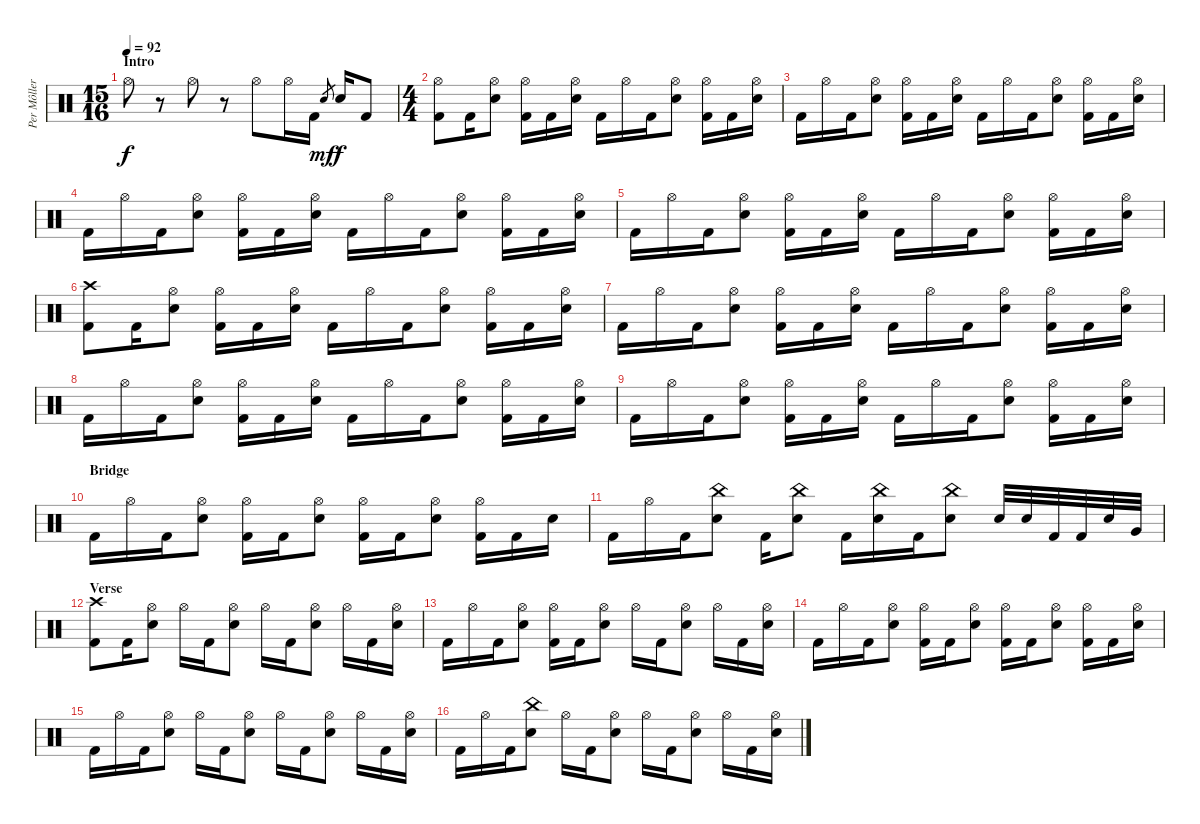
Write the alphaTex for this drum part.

\track ("Per Môller Jensen" "Per Môller") {instrument percussion}
\staff {score}
\articulation defaults
\ts (15 16)
\section ("" "Intro")
\tempo 92
\clef neutral
\ks c "Hi-Hat (open)".8{dy f}
r.8 "Hi-Hat (open)".8 r.8 "Hi-Hat (open)".8 "Hi-Hat (open)".16 "Kick (hit) 2".16 "Electric Snare (hit)".8{gr dy mf} "Electric Snare (hit)".16{dy f} "Kick (hit) 2".8 |
\ts (4 4)
("Kick (hit) 2" "Hi-Hat (open)").8 "Kick (hit) 2".16 ("Electric Snare (hit)" "Hi-Hat (open)").8 ("Kick (hit) 2" "Hi-Hat (open)").16 "Kick (hit) 2".16 ("Electric Snare (hit)" "Hi-Hat (open)").16 "Kick (hit) 2".16 "Hi-Hat (open)".16 "Kick (hit) 2".16 ("Electric Snare (hit)" "Hi-Hat (open)").8 ("Kick (hit) 2" "Hi-Hat (open)").16 "Kick (hit) 2".16 ("Electric Snare (hit)" "Hi-Hat (open)").16 |
"Kick (hit) 2".16 "Hi-Hat (open)".16 "Kick (hit) 2".16 ("Electric Snare (hit)" "Hi-Hat (open)").8 ("Kick (hit) 2" "Hi-Hat (open)").16 "Kick (hit) 2".16 ("Electric Snare (hit)" "Hi-Hat (open)").16 "Kick (hit) 2".16 "Hi-Hat (open)".16 "Kick (hit) 2".16 ("Electric Snare (hit)" "Hi-Hat (open)").8 ("Kick (hit) 2" "Hi-Hat (open)").16 "Kick (hit) 2".16 ("Electric Snare (hit)" "Hi-Hat (open)").16 |
"Kick (hit) 2".16 "Hi-Hat (open)".16 "Kick (hit) 2".16 ("Electric Snare (hit)" "Hi-Hat (open)").8 ("Kick (hit) 2" "Hi-Hat (open)").16 "Kick (hit) 2".16 ("Electric Snare (hit)" "Hi-Hat (open)").16 "Kick (hit) 2".16 "Hi-Hat (open)".16 "Kick (hit) 2".16 ("Electric Snare (hit)" "Hi-Hat (open)").8 ("Kick (hit) 2" "Hi-Hat (open)").16 "Kick (hit) 2".16 ("Electric Snare (hit)" "Hi-Hat (open)").16 |
"Kick (hit) 2".16 "Hi-Hat (open)".16 "Kick (hit) 2".16 ("Electric Snare (hit)" "Hi-Hat (open)").8 ("Kick (hit) 2" "Hi-Hat (open)").16 "Kick (hit) 2".16 ("Electric Snare (hit)" "Hi-Hat (open)").16 "Kick (hit) 2".16 "Hi-Hat (open)".16 "Kick (hit) 2".16 ("Electric Snare (hit)" "Hi-Hat (open)").8 ("Kick (hit) 2" "Hi-Hat (open)").16 "Kick (hit) 2".16 ("Electric Snare (hit)" "Hi-Hat (open)").16 |
("Kick (hit) 2" "Crash high (hit)").8 "Kick (hit) 2".16 ("Electric Snare (hit)" "Hi-Hat (open)").8 ("Kick (hit) 2" "Hi-Hat (open)").16 "Kick (hit) 2".16 ("Electric Snare (hit)" "Hi-Hat (open)").16 "Kick (hit) 2".16 "Hi-Hat (open)".16 "Kick (hit) 2".16 ("Electric Snare (hit)" "Hi-Hat (open)").8 ("Kick (hit) 2" "Hi-Hat (open)").16 "Kick (hit) 2".16 ("Electric Snare (hit)" "Hi-Hat (open)").16 |
"Kick (hit) 2".16 "Hi-Hat (open)".16 "Kick (hit) 2".16 ("Electric Snare (hit)" "Hi-Hat (open)").8 ("Kick (hit) 2" "Hi-Hat (open)").16 "Kick (hit) 2".16 ("Electric Snare (hit)" "Hi-Hat (open)").16 "Kick (hit) 2".16 "Hi-Hat (open)".16 "Kick (hit) 2".16 ("Electric Snare (hit)" "Hi-Hat (open)").8 ("Kick (hit) 2" "Hi-Hat (open)").16 "Kick (hit) 2".16 ("Electric Snare (hit)" "Hi-Hat (open)").16 |
"Kick (hit) 2".16 "Hi-Hat (open)".16 "Kick (hit) 2".16 ("Electric Snare (hit)" "Hi-Hat (open)").8 ("Kick (hit) 2" "Hi-Hat (open)").16 "Kick (hit) 2".16 ("Electric Snare (hit)" "Hi-Hat (open)").16 "Kick (hit) 2".16 "Hi-Hat (open)".16 "Kick (hit) 2".16 ("Electric Snare (hit)" "Hi-Hat (open)").8 ("Kick (hit) 2" "Hi-Hat (open)").16 "Kick (hit) 2".16 ("Electric Snare (hit)" "Hi-Hat (open)").16 |
"Kick (hit) 2".16 "Hi-Hat (open)".16 "Kick (hit) 2".16 ("Electric Snare (hit)" "Hi-Hat (open)").8 ("Kick (hit) 2" "Hi-Hat (open)").16 "Kick (hit) 2".16 ("Electric Snare (hit)" "Hi-Hat (open)").16 "Kick (hit) 2".16 "Hi-Hat (open)".16 "Kick (hit) 2".16 ("Electric Snare (hit)" "Hi-Hat (open)").8 ("Kick (hit) 2" "Hi-Hat (open)").16 "Kick (hit) 2".16 ("Electric Snare (hit)" "Hi-Hat (open)").16 |
\section ("" "Bridge")
"Kick (hit) 2".16 "Hi-Hat (open)".16 "Kick (hit) 2".16 ("Electric Snare (hit)" "Hi-Hat (open)").8 ("Kick (hit) 2" "Hi-Hat (open)").16 "Kick (hit) 2".16 ("Electric Snare (hit)" "Hi-Hat (open)").8 ("Kick (hit) 2" "Hi-Hat (open)").16 "Kick (hit) 2".16 ("Electric Snare (hit)" "Hi-Hat (open)").8 ("Kick (hit) 2" "Hi-Hat (open)").16 "Kick (hit) 2".16 "Electric Snare (hit)".16 |
"Kick (hit) 2".16 "Hi-Hat (open)".16 "Kick (hit) 2".16 ("Electric Snare (hit)" "China (hit)").8 "Kick (hit) 2".16 ("Electric Snare (hit)" "China (hit)").8 "Kick (hit) 2".16 ("Electric Snare (hit)" "China (hit)").16 "Kick (hit) 2".16 ("Electric Snare (hit)" "China (hit)").8 "Electric Snare (hit)".32 "Electric Snare (hit)".32 "Kick (hit) 2".32 "Kick (hit) 2".32 "Electric Snare (hit)".32 "Very Low Tom (hit)".32 |
\section ("" "Verse")
("Kick (hit) 2" "Crash high (hit)").8 "Kick (hit) 2".16 ("Electric Snare (hit)" "Hi-Hat (open)").8 "Hi-Hat (open)".16 "Kick (hit) 2".16 ("Electric Snare (hit)" "Hi-Hat (open)").8 "Hi-Hat (open)".16 "Kick (hit) 2".16 ("Electric Snare (hit)" "Hi-Hat (open)").8 "Hi-Hat (open)".16 "Kick (hit) 2".16 ("Electric Snare (hit)" "Hi-Hat (open)").16 |
"Kick (hit) 2".16 "Hi-Hat (open)".16 "Kick (hit) 2".16 ("Electric Snare (hit)" "Hi-Hat (open)").8 ("Kick (hit) 2" "Hi-Hat (open)").16 "Kick (hit) 2".16 ("Electric Snare (hit)" "Hi-Hat (open)").8 "Hi-Hat (open)".16 "Kick (hit) 2".16 ("Electric Snare (hit)" "Hi-Hat (open)").8 "Hi-Hat (open)".16 "Kick (hit) 2".16 ("Electric Snare (hit)" "Hi-Hat (open)").16 |
"Kick (hit) 2".16 "Hi-Hat (open)".16 "Kick (hit) 2".16 ("Electric Snare (hit)" "Hi-Hat (open)").8 ("Kick (hit) 2" "Hi-Hat (open)").16 "Kick (hit) 2".16 ("Electric Snare (hit)" "Hi-Hat (open)").8 ("Kick (hit) 2" "Hi-Hat (open)").16 "Kick (hit) 2".16 ("Electric Snare (hit)" "Hi-Hat (open)").8 ("Kick (hit) 2" "Hi-Hat (open)").16 "Kick (hit) 2".16 ("Electric Snare (hit)" "Hi-Hat (open)").16 |
"Kick (hit) 2".16 "Hi-Hat (open)".16 "Kick (hit) 2".16 ("Electric Snare (hit)" "Hi-Hat (open)").8 "Hi-Hat (open)".16 "Kick (hit) 2".16 ("Electric Snare (hit)" "Hi-Hat (open)").8 "Hi-Hat (open)".16 "Kick (hit) 2".16 ("Electric Snare (hit)" "Hi-Hat (open)").8 "Hi-Hat (open)".16 "Kick (hit) 2".16 ("Electric Snare (hit)" "Hi-Hat (open)").16 |
"Kick (hit) 2".16 "Hi-Hat (open)".16 "Kick (hit) 2".16 ("Electric Snare (hit)" "China (hit)").8 "Hi-Hat (open)".16 "Kick (hit) 2".16 ("Electric Snare (hit)" "Hi-Hat (open)").8 "Hi-Hat (open)".16 "Kick (hit) 2".16 ("Electric Snare (hit)" "Hi-Hat (open)").8 "Hi-Hat (open)".16 "Kick (hit) 2".16 ("Electric Snare (hit)" "Hi-Hat (open)").16
